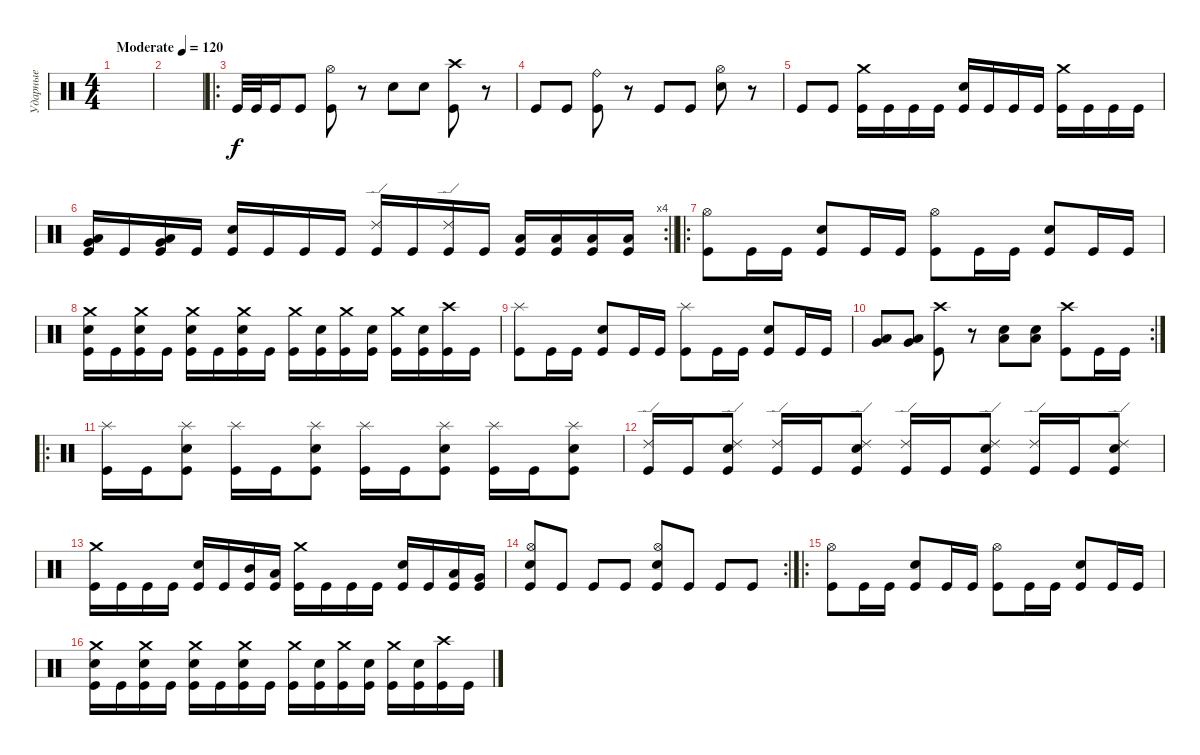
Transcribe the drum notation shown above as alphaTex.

\track ("Ударные" "Ударные") {instrument percussion}
\staff {score}
\articulation defaults
\ts (4 4)
\tempo (120 "Moderate")
\clef neutral
\ks c
|
|
\ro "Kick (hit)".32 "Kick (hit)".32 "Kick (hit)".16 "Kick (hit)".8
("Hi-Hat (open)" "Kick (hit)").8 r.8 "Electric Snare (hit)".8 "Electric Snare (hit)".8 ("Crash high (hit)" "Kick (hit)").8 r.8 |
"Kick (hit)".8 "Kick (hit)".8 ("Ride (bell)" "Kick (hit)").8 r.8 "Kick (hit)".8 "Kick (hit)".8 ("Electric Snare (hit)" "Hi-Hat (open)").8 r.8 |
"Kick (hit)".8 "Kick (hit)".8 ("Crash medium (hit)" "Kick (hit)").16 "Kick (hit)".16 "Kick (hit)".16 "Kick (hit)".16 ("Electric Snare (hit)" "Kick (hit)").16 "Kick (hit)".16 "Kick (hit)".16 "Kick (hit)".16 ("Crash medium (hit)" "Kick (hit)").16 "Kick (hit)".16 "Kick (hit)".16 "Kick (hit)".16 |
\rc 4
\barLineRight lightlight
("Low Floor Tom (hit)" "Very Low Tom (hit)" "Kick (hit)").16 "Kick (hit)".16 ("Low Floor Tom (hit)" "Very Low Tom (hit)" "Kick (hit)").16 "Kick (hit)".16 ("Electric Snare (hit)" "Kick (hit)").16 "Kick (hit)".16 "Kick (hit)".16 "Kick (hit)".16 ("Ride (edge) 2" "Kick (hit)").16 "Kick (hit)".16 ("Ride (edge) 2" "Kick (hit)").16 "Kick (hit)".16 ("Low Floor Tom (hit)" "Kick (hit)").16 ("Low Floor Tom (hit)" "Kick (hit)").16 ("Low Tom (hit)" "Kick (hit)").16 ("Low Tom (hit)" "Kick (hit)").16 |
\ro
("Hi-Hat (open)" "Kick (hit)").8 "Kick (hit)".16 "Kick (hit)".16 ("Electric Snare (hit)" "Kick (hit)").8 "Kick (hit)".16 "Kick (hit)".16 ("Hi-Hat (open)" "Kick (hit)").8 "Kick (hit)".16 "Kick (hit)".16 ("Electric Snare (hit)" "Kick (hit)").8 "Kick (hit)".16 "Kick (hit)".16 |
("Crash medium (hit)" "Kick (hit)" "Electric Snare (hit)").16 "Kick (hit)".16 ("Crash medium (hit)" "Kick (hit)" "Electric Snare (hit)").16 "Kick (hit)".16 ("Crash medium (hit)" "Kick (hit)" "Electric Snare (hit)").16 "Kick (hit)".16 ("Crash medium (hit)" "Kick (hit)" "Electric Snare (hit)").16 "Kick (hit)".16 ("Crash medium (hit)" "Kick (hit)").16 ("Electric Snare (hit)" "Kick (hit)").16 ("Crash medium (hit)" "Kick (hit)").16 ("Electric Snare (hit)" "Kick (hit)").16 ("Crash medium (hit)" "Kick (hit)").16 ("Electric Snare (hit)" "Kick (hit)").16 ("Crash high (hit)" "Kick (hit)").16 "Kick (hit)".16 |
("Splash (hit)" "Kick (hit)").8 "Kick (hit)".16 "Kick (hit)".16 ("Electric Snare (hit)" "Kick (hit)").8 "Kick (hit)".16 "Kick (hit)".16 ("Splash (hit)" "Kick (hit)").8 "Kick (hit)".16 "Kick (hit)".16 ("Electric Snare (hit)" "Kick (hit)").8 "Kick (hit)".16 "Kick (hit)".16 |
\rc 2
("Low Tom (hit)" "Very Low Tom (hit)").8 ("Low Tom (hit)" "Very Low Tom (hit)").8 ("Crash high (hit)" "Kick (hit)").8 r.8 ("Electric Snare (hit)" "Low Floor Tom (hit)").8 ("Electric Snare (hit)" "Low Floor Tom (hit)").8 ("Crash high (hit)" "Kick (hit)").8 "Kick (hit)".16 "Kick (hit)".16 |
\ro
("Splash (hit)" "Kick (hit)").16 "Kick (hit)".16 ("Splash (hit)" "Electric Snare (hit)" "Kick (hit)").8 ("Splash (hit)" "Kick (hit)").16 "Kick (hit)".16 ("Splash (hit)" "Electric Snare (hit)" "Kick (hit)").8 ("Splash (hit)" "Kick (hit)").16 "Kick (hit)".16 ("Splash (hit)" "Electric Snare (hit)" "Kick (hit)").8 ("Splash (hit)" "Kick (hit)").16 "Kick (hit)".16 ("Splash (hit)" "Electric Snare (hit)" "Kick (hit)").8 |
("Ride (edge) 2" "Kick (hit)").16 "Kick (hit)".16 ("Ride (edge) 2" "Electric Snare (hit)" "Kick (hit)").8 ("Ride (edge) 2" "Kick (hit)").16 "Kick (hit)".16 ("Ride (edge) 2" "Electric Snare (hit)" "Kick (hit)").8 ("Ride (edge) 2" "Kick (hit)").16 "Kick (hit)".16 ("Ride (edge) 2" "Electric Snare (hit)" "Kick (hit)").8 ("Ride (edge) 2" "Kick (hit)").16 "Kick (hit)".16 ("Ride (edge) 2" "Electric Snare (hit)" "Kick (hit)").8 |
("Crash medium (hit)" "Kick (hit)").16 "Kick (hit)".16 "Kick (hit)".16 "Kick (hit)".16 ("Electric Snare (hit)" "Kick (hit)").16 "Kick (hit)".16 ("Mid Tom (hit)" "Kick (hit)").16 ("Low Tom (hit)" "Kick (hit)").16 ("Crash medium (hit)" "Kick (hit)").16 "Kick (hit)".16 "Kick (hit)".16 "Kick (hit)".16 ("Electric Snare (hit)" "Kick (hit)").16 "Kick (hit)".16 ("Low Tom (hit)" "Kick (hit)").16 ("Very Low Tom (hit)" "Kick (hit)").16 |
\rc 2
("Hi-Hat (open)" "Electric Snare (hit)" "Kick (hit)").8 "Kick (hit)".8 "Kick (hit)".8 "Kick (hit)".8 ("Hi-Hat (open)" "Kick (hit)" "Electric Snare (hit)").8 "Kick (hit)".8 "Kick (hit)".8 "Kick (hit)".8 |
\ro
("Hi-Hat (open)" "Kick (hit)").8 "Kick (hit)".16 "Kick (hit)".16 ("Electric Snare (hit)" "Kick (hit)").8 "Kick (hit)".16 "Kick (hit)".16 ("Hi-Hat (open)" "Kick (hit)").8 "Kick (hit)".16 "Kick (hit)".16 ("Electric Snare (hit)" "Kick (hit)").8 "Kick (hit)".16 "Kick (hit)".16 |
("Crash medium (hit)" "Kick (hit)" "Electric Snare (hit)").16 "Kick (hit)".16 ("Crash medium (hit)" "Kick (hit)" "Electric Snare (hit)").16 "Kick (hit)".16 ("Crash medium (hit)" "Kick (hit)" "Electric Snare (hit)").16 "Kick (hit)".16 ("Crash medium (hit)" "Kick (hit)" "Electric Snare (hit)").16 "Kick (hit)".16 ("Crash medium (hit)" "Kick (hit)").16 ("Electric Snare (hit)" "Kick (hit)").16 ("Crash medium (hit)" "Kick (hit)").16 ("Electric Snare (hit)" "Kick (hit)").16 ("Crash medium (hit)" "Kick (hit)").16 ("Electric Snare (hit)" "Kick (hit)").16 ("Crash high (hit)" "Kick (hit)").16 "Kick (hit)".16
